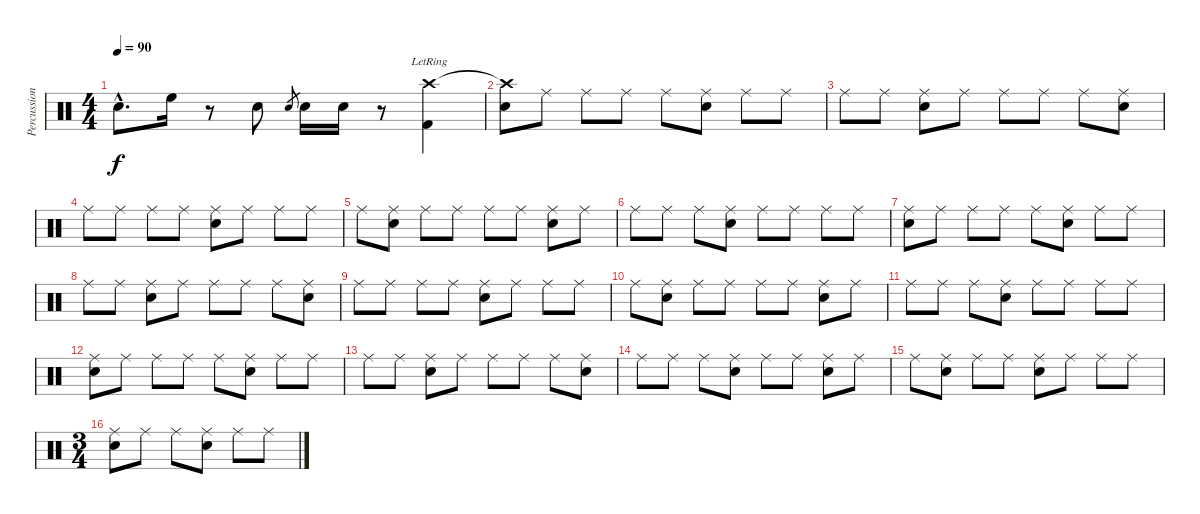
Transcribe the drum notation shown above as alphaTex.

\track ("Percussion" "Percussion") {instrument percussion}
\staff {score}
\articulation defaults
\ts (4 4)
\tempo 90
\clef neutral
\ks c "Snare (hit) 2"{hac}.8{d dy f} "High Floor Tom (hit)".16
r.8 "Snare (hit) 2".8 "Snare (hit) 2".8{gr} "Snare (hit) 2".16 "Snare (hit) 2".16 r.8 ("Kick (hit) 2" "Crash high (hit)"{lr}).4 |
("Snare (hit) 2" "Crash high (hit)"{t}).8 "Ride (middle)".8 "Ride (middle)".8 "Ride (middle)".8 "Ride (middle)".8 ("Snare (hit) 2" "Ride (middle)").8 "Ride (middle)".8 "Ride (middle)".8 |
"Ride (middle)".8 "Ride (middle)".8 ("Snare (hit) 2" "Ride (middle)").8 "Ride (middle)".8 "Ride (middle)".8 "Ride (middle)".8 "Ride (middle)".8 ("Snare (hit) 2" "Ride (middle)").8 |
"Ride (middle)".8 "Ride (middle)".8 "Ride (middle)".8 "Ride (middle)".8 ("Snare (hit) 2" "Ride (middle)").8 "Ride (middle)".8 "Ride (middle)".8 "Ride (middle)".8 |
"Ride (middle)".8 ("Snare (hit) 2" "Ride (middle)").8 "Ride (middle)".8 "Ride (middle)".8 "Ride (middle)".8 "Ride (middle)".8 ("Snare (hit) 2" "Ride (middle)").8 "Ride (middle)".8 |
"Ride (middle)".8 "Ride (middle)".8 "Ride (middle)".8 ("Snare (hit) 2" "Ride (middle)").8 "Ride (middle)".8 "Ride (middle)".8 "Ride (middle)".8 "Ride (middle)".8 |
("Snare (hit) 2" "Ride (middle)").8 "Ride (middle)".8 "Ride (middle)".8 "Ride (middle)".8 "Ride (middle)".8 ("Snare (hit) 2" "Ride (middle)").8 "Ride (middle)".8 "Ride (middle)".8 |
"Ride (middle)".8 "Ride (middle)".8 ("Snare (hit) 2" "Ride (middle)").8 "Ride (middle)".8 "Ride (middle)".8 "Ride (middle)".8 "Ride (middle)".8 ("Snare (hit) 2" "Ride (middle)").8 |
"Ride (middle)".8 "Ride (middle)".8 "Ride (middle)".8 "Ride (middle)".8 ("Snare (hit) 2" "Ride (middle)").8 "Ride (middle)".8 "Ride (middle)".8 "Ride (middle)".8 |
"Ride (middle)".8 ("Snare (hit) 2" "Ride (middle)").8 "Ride (middle)".8 "Ride (middle)".8 "Ride (middle)".8 "Ride (middle)".8 ("Snare (hit) 2" "Ride (middle)").8 "Ride (middle)".8 |
"Ride (middle)".8 "Ride (middle)".8 "Ride (middle)".8 ("Snare (hit) 2" "Ride (middle)").8 "Ride (middle)".8 "Ride (middle)".8 "Ride (middle)".8 "Ride (middle)".8 |
("Snare (hit) 2" "Ride (middle)").8 "Ride (middle)".8 "Ride (middle)".8 "Ride (middle)".8 "Ride (middle)".8 ("Snare (hit) 2" "Ride (middle)").8 "Ride (middle)".8 "Ride (middle)".8 |
"Ride (middle)".8 "Ride (middle)".8 ("Snare (hit) 2" "Ride (middle)").8 "Ride (middle)".8 "Ride (middle)".8 "Ride (middle)".8 "Ride (middle)".8 ("Snare (hit) 2" "Ride (middle)").8 |
"Ride (middle)".8 "Ride (middle)".8 "Ride (middle)".8 ("Snare (hit) 2" "Ride (middle)").8 "Ride (middle)".8 "Ride (middle)".8 ("Snare (hit) 2" "Ride (middle)").8 "Ride (middle)".8 |
"Ride (middle)".8 ("Snare (hit) 2" "Ride (middle)").8 "Ride (middle)".8 "Ride (middle)".8 ("Snare (hit) 2" "Ride (middle)").8 "Ride (middle)".8 "Ride (middle)".8 "Ride (middle)".8 |
\ts (3 4)
("Snare (hit) 2" "Ride (middle)").8 "Ride (middle)".8 "Ride (middle)".8 ("Snare (hit) 2" "Ride (middle)").8 "Ride (middle)".8 "Ride (middle)".8
